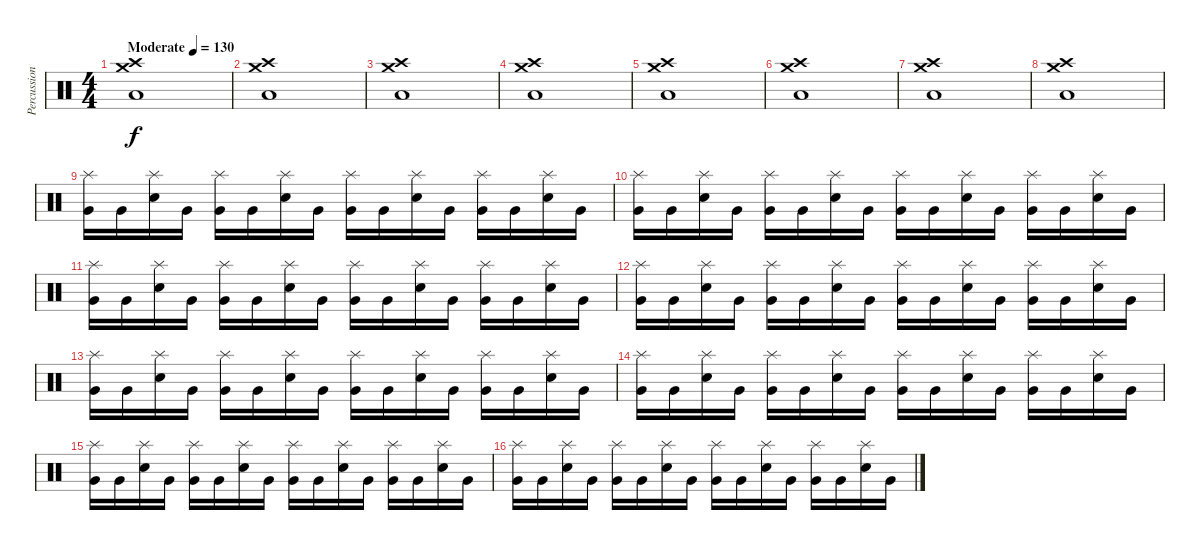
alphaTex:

\track ("Percussion" "Percussion") {instrument percussion}
\staff {score}
\articulation defaults
\ts (4 4)
\tempo (130 "Moderate")
\clef neutral
\ks c
("Crash high (hit)" "Crash medium (hit)" "Low Tom (hit)").1{dy f} |
("Crash high (hit)" "Crash medium (hit)" "Low Tom (hit)").1 |
("Crash high (hit)" "Crash medium (hit)" "Low Tom (hit)").1 |
("Crash high (hit)" "Crash medium (hit)" "Low Tom (hit)").1 |
("Crash high (hit)" "Crash medium (hit)" "Low Tom (hit)").1 |
("Crash high (hit)" "Crash medium (hit)" "Low Tom (hit)").1 |
("Crash high (hit)" "Crash medium (hit)" "Low Tom (hit)").1 |
("Crash high (hit)" "Crash medium (hit)" "Low Tom (hit)").1 |
("Very Low Tom (hit)" "Splash (hit)").16 "Very Low Tom (hit)".16 ("Snare (hit) 2" "Splash (hit)").16 "Very Low Tom (hit)".16 ("Very Low Tom (hit)" "Splash (hit)").16 "Very Low Tom (hit)".16 ("Snare (hit) 2" "Splash (hit)").16 "Very Low Tom (hit)".16 ("Very Low Tom (hit)" "Splash (hit)").16 "Very Low Tom (hit)".16 ("Snare (hit) 2" "Splash (hit)").16 "Very Low Tom (hit)".16 ("Very Low Tom (hit)" "Splash (hit)").16 "Very Low Tom (hit)".16 ("Snare (hit) 2" "Splash (hit)").16 "Very Low Tom (hit)".16 |
("Very Low Tom (hit)" "Splash (hit)").16 "Very Low Tom (hit)".16 ("Snare (hit) 2" "Splash (hit)").16 "Very Low Tom (hit)".16 ("Very Low Tom (hit)" "Splash (hit)").16 "Very Low Tom (hit)".16 ("Snare (hit) 2" "Splash (hit)").16 "Very Low Tom (hit)".16 ("Very Low Tom (hit)" "Splash (hit)").16 "Very Low Tom (hit)".16 ("Snare (hit) 2" "Splash (hit)").16 "Very Low Tom (hit)".16 ("Very Low Tom (hit)" "Splash (hit)").16 "Very Low Tom (hit)".16 ("Snare (hit) 2" "Splash (hit)").16 "Very Low Tom (hit)".16 |
("Very Low Tom (hit)" "Splash (hit)").16 "Very Low Tom (hit)".16 ("Snare (hit) 2" "Splash (hit)").16 "Very Low Tom (hit)".16 ("Very Low Tom (hit)" "Splash (hit)").16 "Very Low Tom (hit)".16 ("Snare (hit) 2" "Splash (hit)").16 "Very Low Tom (hit)".16 ("Very Low Tom (hit)" "Splash (hit)").16 "Very Low Tom (hit)".16 ("Snare (hit) 2" "Splash (hit)").16 "Very Low Tom (hit)".16 ("Very Low Tom (hit)" "Splash (hit)").16 "Very Low Tom (hit)".16 ("Snare (hit) 2" "Splash (hit)").16 "Very Low Tom (hit)".16 |
("Very Low Tom (hit)" "Splash (hit)").16 "Very Low Tom (hit)".16 ("Snare (hit) 2" "Splash (hit)").16 "Very Low Tom (hit)".16 ("Very Low Tom (hit)" "Splash (hit)").16 "Very Low Tom (hit)".16 ("Snare (hit) 2" "Splash (hit)").16 "Very Low Tom (hit)".16 ("Very Low Tom (hit)" "Splash (hit)").16 "Very Low Tom (hit)".16 ("Snare (hit) 2" "Splash (hit)").16 "Very Low Tom (hit)".16 ("Very Low Tom (hit)" "Splash (hit)").16 "Very Low Tom (hit)".16 ("Snare (hit) 2" "Splash (hit)").16 "Very Low Tom (hit)".16 |
("Very Low Tom (hit)" "Splash (hit)").16 "Very Low Tom (hit)".16 ("Snare (hit) 2" "Splash (hit)").16 "Very Low Tom (hit)".16 ("Very Low Tom (hit)" "Splash (hit)").16 "Very Low Tom (hit)".16 ("Snare (hit) 2" "Splash (hit)").16 "Very Low Tom (hit)".16 ("Very Low Tom (hit)" "Splash (hit)").16 "Very Low Tom (hit)".16 ("Snare (hit) 2" "Splash (hit)").16 "Very Low Tom (hit)".16 ("Very Low Tom (hit)" "Splash (hit)").16 "Very Low Tom (hit)".16 ("Snare (hit) 2" "Splash (hit)").16 "Very Low Tom (hit)".16 |
("Very Low Tom (hit)" "Splash (hit)").16 "Very Low Tom (hit)".16 ("Snare (hit) 2" "Splash (hit)").16 "Very Low Tom (hit)".16 ("Very Low Tom (hit)" "Splash (hit)").16 "Very Low Tom (hit)".16 ("Snare (hit) 2" "Splash (hit)").16 "Very Low Tom (hit)".16 ("Very Low Tom (hit)" "Splash (hit)").16 "Very Low Tom (hit)".16 ("Snare (hit) 2" "Splash (hit)").16 "Very Low Tom (hit)".16 ("Very Low Tom (hit)" "Splash (hit)").16 "Very Low Tom (hit)".16 ("Snare (hit) 2" "Splash (hit)").16 "Very Low Tom (hit)".16 |
("Very Low Tom (hit)" "Splash (hit)").16 "Very Low Tom (hit)".16 ("Snare (hit) 2" "Splash (hit)").16 "Very Low Tom (hit)".16 ("Very Low Tom (hit)" "Splash (hit)").16 "Very Low Tom (hit)".16 ("Snare (hit) 2" "Splash (hit)").16 "Very Low Tom (hit)".16 ("Very Low Tom (hit)" "Splash (hit)").16 "Very Low Tom (hit)".16 ("Snare (hit) 2" "Splash (hit)").16 "Very Low Tom (hit)".16 ("Very Low Tom (hit)" "Splash (hit)").16 "Very Low Tom (hit)".16 ("Snare (hit) 2" "Splash (hit)").16 "Very Low Tom (hit)".16 |
("Very Low Tom (hit)" "Splash (hit)").16 "Very Low Tom (hit)".16 ("Snare (hit) 2" "Splash (hit)").16 "Very Low Tom (hit)".16 ("Very Low Tom (hit)" "Splash (hit)").16 "Very Low Tom (hit)".16 ("Snare (hit) 2" "Splash (hit)").16 "Very Low Tom (hit)".16 ("Very Low Tom (hit)" "Splash (hit)").16 "Very Low Tom (hit)".16 ("Snare (hit) 2" "Splash (hit)").16 "Very Low Tom (hit)".16 ("Very Low Tom (hit)" "Splash (hit)").16 "Very Low Tom (hit)".16 ("Snare (hit) 2" "Splash (hit)").16 "Very Low Tom (hit)".16
